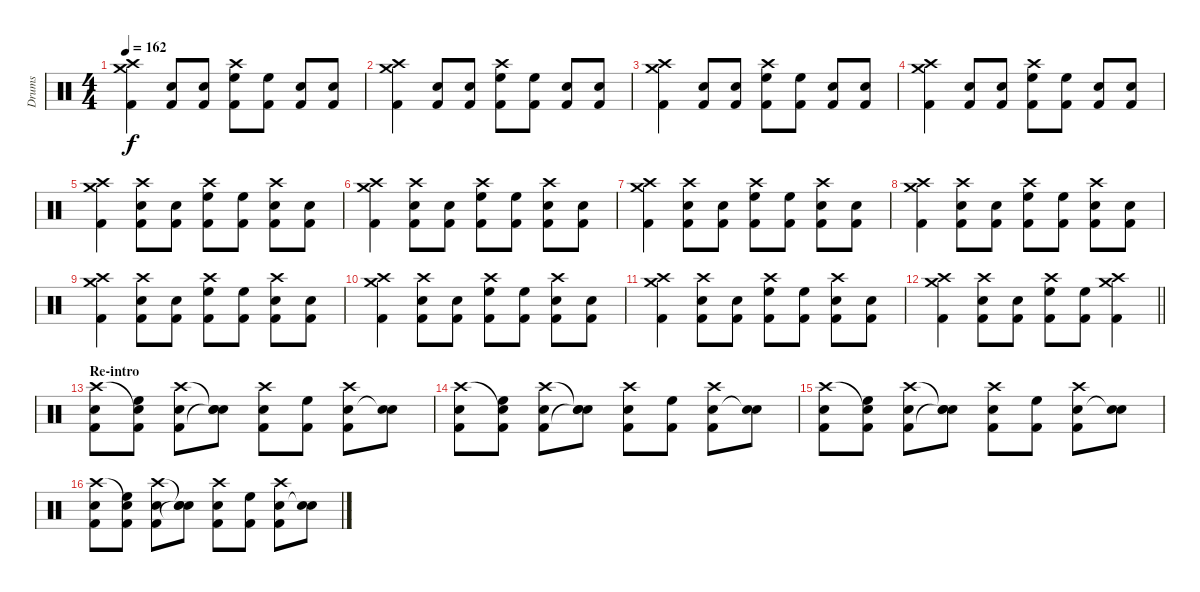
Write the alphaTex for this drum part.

\track ("Drums" "Drums") {instrument percussion}
\staff {score}
\articulation defaults
\ts (4 4)
\tempo 162
\clef neutral
\ks c
("Crash high (hit)" "Crash medium (hit)" "Kick (hit) 2").4{dy f} ("Snare (hit) 2" "Kick (hit) 2").8 ("Snare (hit) 2" "Kick (hit) 2").8 ("Crash high (hit)" "High Floor Tom (hit)" "Kick (hit) 2").8 ("High Floor Tom (hit)" "Kick (hit) 2").8 ("Snare (hit) 2" "Kick (hit) 2").8 ("Snare (hit) 2" "Kick (hit) 2").8 |
("Crash high (hit)" "Crash medium (hit)" "Kick (hit) 2").4 ("Snare (hit) 2" "Kick (hit) 2").8 ("Snare (hit) 2" "Kick (hit) 2").8 ("Crash high (hit)" "High Floor Tom (hit)" "Kick (hit) 2").8 ("High Floor Tom (hit)" "Kick (hit) 2").8 ("Snare (hit) 2" "Kick (hit) 2").8 ("Snare (hit) 2" "Kick (hit) 2").8 |
("Crash high (hit)" "Crash medium (hit)" "Kick (hit) 2").4 ("Snare (hit) 2" "Kick (hit) 2").8 ("Snare (hit) 2" "Kick (hit) 2").8 ("Crash high (hit)" "High Floor Tom (hit)" "Kick (hit) 2").8 ("High Floor Tom (hit)" "Kick (hit) 2").8 ("Snare (hit) 2" "Kick (hit) 2").8 ("Snare (hit) 2" "Kick (hit) 2").8 |
("Crash high (hit)" "Crash medium (hit)" "Kick (hit) 2").4 ("Snare (hit) 2" "Kick (hit) 2").8 ("Snare (hit) 2" "Kick (hit) 2").8 ("Crash high (hit)" "High Floor Tom (hit)" "Kick (hit) 2").8 ("High Floor Tom (hit)" "Kick (hit) 2").8 ("Snare (hit) 2" "Kick (hit) 2").8 ("Snare (hit) 2" "Kick (hit) 2").8 |
("Crash high (hit)" "Crash medium (hit)" "Kick (hit) 2").4 ("Crash high (hit)" "Snare (hit) 2" "Kick (hit) 2").8 ("Snare (hit) 2" "Kick (hit) 2").8 ("Crash high (hit)" "High Floor Tom (hit)" "Kick (hit) 2").8 ("High Floor Tom (hit)" "Kick (hit) 2").8 ("Crash high (hit)" "Snare (hit) 2" "Kick (hit) 2").8 ("Snare (hit) 2" "Kick (hit) 2").8 |
("Crash high (hit)" "Crash medium (hit)" "Kick (hit) 2").4 ("Crash high (hit)" "Snare (hit) 2" "Kick (hit) 2").8 ("Snare (hit) 2" "Kick (hit) 2").8 ("Crash high (hit)" "High Floor Tom (hit)" "Kick (hit) 2").8 ("High Floor Tom (hit)" "Kick (hit) 2").8 ("Crash high (hit)" "Snare (hit) 2" "Kick (hit) 2").8 ("Snare (hit) 2" "Kick (hit) 2").8 |
("Crash high (hit)" "Crash medium (hit)" "Kick (hit) 2").4 ("Crash high (hit)" "Snare (hit) 2" "Kick (hit) 2").8 ("Snare (hit) 2" "Kick (hit) 2").8 ("Crash high (hit)" "High Floor Tom (hit)" "Kick (hit) 2").8 ("High Floor Tom (hit)" "Kick (hit) 2").8 ("Crash high (hit)" "Snare (hit) 2" "Kick (hit) 2").8 ("Snare (hit) 2" "Kick (hit) 2").8 |
("Crash high (hit)" "Crash medium (hit)" "Kick (hit) 2").4 ("Crash high (hit)" "Snare (hit) 2" "Kick (hit) 2").8 ("Snare (hit) 2" "Kick (hit) 2").8 ("Crash high (hit)" "High Floor Tom (hit)" "Kick (hit) 2").8 ("High Floor Tom (hit)" "Kick (hit) 2").8 ("Crash high (hit)" "Snare (hit) 2" "Kick (hit) 2").8 ("Snare (hit) 2" "Kick (hit) 2").8 |
("Crash high (hit)" "Crash medium (hit)" "Kick (hit) 2").4 ("Crash high (hit)" "Snare (hit) 2" "Kick (hit) 2").8 ("Snare (hit) 2" "Kick (hit) 2").8 ("Crash high (hit)" "High Floor Tom (hit)" "Kick (hit) 2").8 ("High Floor Tom (hit)" "Kick (hit) 2").8 ("Crash high (hit)" "Snare (hit) 2" "Kick (hit) 2").8 ("Snare (hit) 2" "Kick (hit) 2").8 |
("Crash high (hit)" "Crash medium (hit)" "Kick (hit) 2").4 ("Crash high (hit)" "Snare (hit) 2" "Kick (hit) 2").8 ("Snare (hit) 2" "Kick (hit) 2").8 ("Crash high (hit)" "High Floor Tom (hit)" "Kick (hit) 2").8 ("High Floor Tom (hit)" "Kick (hit) 2").8 ("Crash high (hit)" "Snare (hit) 2" "Kick (hit) 2").8 ("Snare (hit) 2" "Kick (hit) 2").8 |
("Crash high (hit)" "Crash medium (hit)" "Kick (hit) 2").4 ("Crash high (hit)" "Snare (hit) 2" "Kick (hit) 2").8 ("Snare (hit) 2" "Kick (hit) 2").8 ("Crash high (hit)" "High Floor Tom (hit)" "Kick (hit) 2").8 ("High Floor Tom (hit)" "Kick (hit) 2").8 ("Crash high (hit)" "Snare (hit) 2" "Kick (hit) 2").8 ("Snare (hit) 2" "Kick (hit) 2").8 |
\barLineRight lightlight
("Crash high (hit)" "Crash medium (hit)" "Kick (hit) 2").4 ("Crash high (hit)" "Snare (hit) 2" "Kick (hit) 2").8 ("Snare (hit) 2" "Kick (hit) 2").8 ("Crash high (hit)" "High Floor Tom (hit)" "Kick (hit) 2").8 ("High Floor Tom (hit)" "Kick (hit) 2").8 ("Crash high (hit)" "Crash medium (hit)" "Kick (hit) 2").4 |
\section ("" "Re-intro")
("Crash high (hit)" "Snare (hit) 2" "Kick (hit) 2").8 ("Snare (hit)"{t} "High Floor Tom (hit)" "Kick (hit) 2").8 ("Crash high (hit)" "Snare (hit) 2" "Kick (hit) 2").8 ("Snare (hit)"{t} "Snare (hit) 2" "Snare (hit)"{t}).8 ("Crash high (hit)" "Snare (hit) 2" "Kick (hit) 2").8 ("High Floor Tom (hit)" "Kick (hit) 2").8 ("Crash high (hit)" "Snare (hit) 2" "Kick (hit) 2").8 ("Snare (hit) 2" "Snare (hit)"{t}).8 |
("Crash high (hit)" "Snare (hit) 2" "Kick (hit) 2").8 ("Snare (hit)"{t} "High Floor Tom (hit)" "Kick (hit) 2").8 ("Crash high (hit)" "Snare (hit) 2" "Kick (hit) 2").8 ("Snare (hit)"{t} "Snare (hit) 2" "Snare (hit)"{t}).8 ("Crash high (hit)" "Snare (hit) 2" "Kick (hit) 2").8 ("High Floor Tom (hit)" "Kick (hit) 2").8 ("Crash high (hit)" "Snare (hit) 2" "Kick (hit) 2").8 ("Snare (hit) 2" "Snare (hit)"{t}).8 |
("Crash high (hit)" "Snare (hit) 2" "Kick (hit) 2").8 ("Snare (hit)"{t} "High Floor Tom (hit)" "Kick (hit) 2").8 ("Crash high (hit)" "Snare (hit) 2" "Kick (hit) 2").8 ("Snare (hit)"{t} "Snare (hit) 2" "Snare (hit)"{t}).8 ("Crash high (hit)" "Snare (hit) 2" "Kick (hit) 2").8 ("High Floor Tom (hit)" "Kick (hit) 2").8 ("Crash high (hit)" "Snare (hit) 2" "Kick (hit) 2").8 ("Snare (hit) 2" "Snare (hit)"{t}).8 |
("Crash high (hit)" "Snare (hit) 2" "Kick (hit) 2").8 ("Snare (hit)"{t} "High Floor Tom (hit)" "Kick (hit) 2").8 ("Crash high (hit)" "Snare (hit) 2" "Kick (hit) 2").8 ("Snare (hit)"{t} "Snare (hit) 2" "Snare (hit)"{t}).8 ("Crash high (hit)" "Snare (hit) 2" "Kick (hit) 2").8 ("High Floor Tom (hit)" "Kick (hit) 2").8 ("Crash high (hit)" "Snare (hit) 2" "Kick (hit) 2").8 ("Snare (hit) 2" "Snare (hit)"{t}).8
